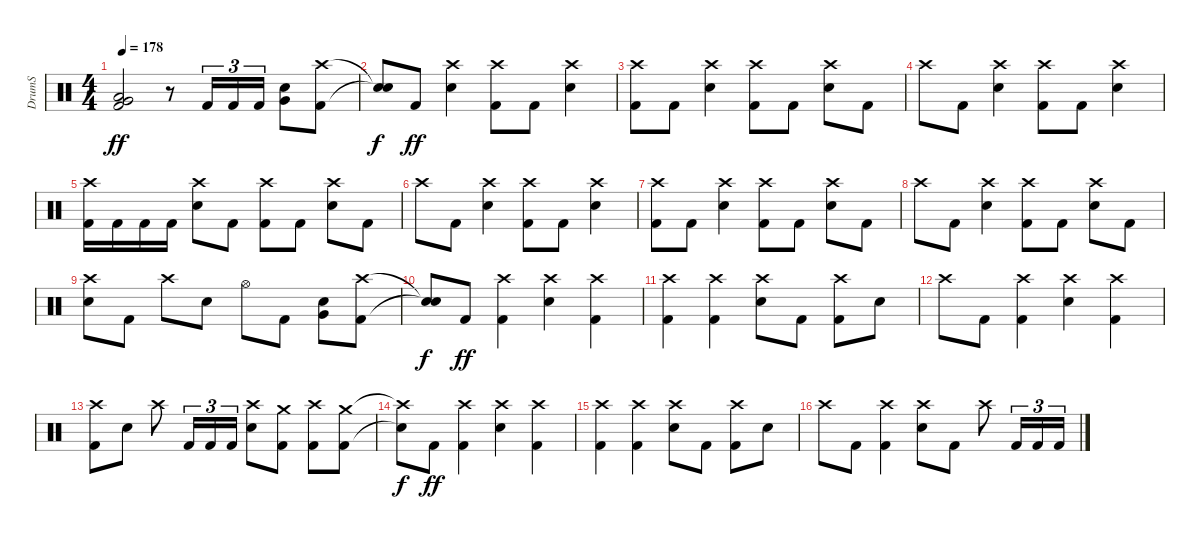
\track ("DrumS" "DrumS") {instrument percussion}
\staff {score}
\articulation defaults
\ts (4 4)
\tempo 178
\clef neutral
\ks c
("Low Floor Tom (hit)" "Very Low Tom (hit)" "Kick (hit) 2").2{dy ff} r.8 "Kick (hit) 2".16{tu (3 2)} "Kick (hit) 2".16{tu (3 2)} "Kick (hit) 2".16{tu (3 2)} ("Very Low Tom (hit)" "Electric Snare (hit)").8 ("Crash high (hit)" "Kick (hit) 2").8 |
("Snare (hit)"{t} "Snare (hit)"{t}).8{dy f} "Kick (hit) 2".8{dy ff} ("Crash high (hit)" "Electric Snare (hit)").4 ("Crash high (hit)" "Kick (hit) 2").8 "Kick (hit) 2".8 ("Crash high (hit)" "Electric Snare (hit)").4 |
("Crash high (hit)" "Kick (hit) 2").8 "Kick (hit) 2".8 ("Crash high (hit)" "Electric Snare (hit)").4 ("Crash high (hit)" "Kick (hit) 2").8 "Kick (hit) 2".8 ("Crash high (hit)" "Electric Snare (hit)").8 "Kick (hit) 2".8 |
"Crash high (hit)".8 "Kick (hit) 2".8 ("Crash high (hit)" "Electric Snare (hit)").4 ("Crash high (hit)" "Kick (hit) 2").8 "Kick (hit) 2".8 ("Crash high (hit)" "Electric Snare (hit)").4 |
("Crash high (hit)" "Kick (hit) 2").16 "Kick (hit) 2".16 "Kick (hit) 2".16 "Kick (hit) 2".16 ("Crash high (hit)" "Electric Snare (hit)").8 "Kick (hit) 2".8 ("Crash high (hit)" "Kick (hit) 2").8 "Kick (hit) 2".8 ("Crash high (hit)" "Electric Snare (hit)").8 "Kick (hit) 2".8 |
"Crash high (hit)".8 "Kick (hit) 2".8 ("Crash high (hit)" "Electric Snare (hit)").4 ("Crash high (hit)" "Kick (hit) 2").8 "Kick (hit) 2".8 ("Crash high (hit)" "Electric Snare (hit)").4 |
("Crash high (hit)" "Kick (hit) 2").8 "Kick (hit) 2".8 ("Crash high (hit)" "Electric Snare (hit)").4 ("Crash high (hit)" "Kick (hit) 2").8 "Kick (hit) 2".8 ("Crash high (hit)" "Electric Snare (hit)").8 "Kick (hit) 2".8 |
"Crash high (hit)".8 "Kick (hit) 2".8 ("Crash high (hit)" "Electric Snare (hit)").4 ("Crash high (hit)" "Kick (hit) 2").8 "Kick (hit) 2".8 ("Crash high (hit)" "Electric Snare (hit)").8 "Kick (hit) 2".8 |
("Crash high (hit)" "Electric Snare (hit)").8 "Kick (hit) 2".8 "Crash high (hit)".8 "Electric Snare (hit)".8 "Hi-Hat (open)".8 "Kick (hit) 2".8 ("Very Low Tom (hit)" "Electric Snare (hit)").8 ("Crash high (hit)" "Kick (hit) 2").8 |
("Snare (hit)"{t} "Snare (hit)"{t}).8{dy f} "Kick (hit) 2".8{dy ff} ("Crash high (hit)" "Kick (hit) 2").4 ("Crash high (hit)" "Electric Snare (hit)").4 ("Crash high (hit)" "Kick (hit) 2").4 |
("Crash high (hit)" "Kick (hit) 2").4 ("Crash high (hit)" "Kick (hit) 2").4 ("Crash high (hit)" "Electric Snare (hit)").8 "Kick (hit) 2".8 ("Crash high (hit)" "Kick (hit) 2").8 "Electric Snare (hit)".8 |
"Crash high (hit)".8 "Kick (hit) 2".8 ("Crash high (hit)" "Kick (hit) 2").4 ("Crash high (hit)" "Electric Snare (hit)").4 ("Crash high (hit)" "Kick (hit) 2").4 |
("Crash high (hit)" "Kick (hit) 2").8 "Electric Snare (hit)".8 "Crash high (hit)".8 "Kick (hit) 2".16{tu (3 2)} "Kick (hit) 2".16{tu (3 2)} "Kick (hit) 2".16{tu (3 2)} ("Crash high (hit)" "Electric Snare (hit)").8 ("Crash medium (hit)" "Kick (hit) 2").8 ("Crash high (hit)" "Kick (hit) 2").8 ("Crash medium (hit)" "Kick (hit) 2").8 |
("Crash high (hit)"{t} "Snare (hit)"{t}).8{dy f} "Kick (hit) 2".8{dy ff} ("Crash high (hit)" "Kick (hit) 2").4 ("Crash high (hit)" "Electric Snare (hit)").4 ("Crash high (hit)" "Kick (hit) 2").4 |
("Crash high (hit)" "Kick (hit) 2").4 ("Crash high (hit)" "Kick (hit) 2").4 ("Crash high (hit)" "Electric Snare (hit)").8 "Kick (hit) 2".8 ("Crash high (hit)" "Kick (hit) 2").8 "Electric Snare (hit)".8 |
"Crash high (hit)".8 "Kick (hit) 2".8 ("Crash high (hit)" "Kick (hit) 2").4 ("Crash high (hit)" "Electric Snare (hit)").8 "Kick (hit) 2".8 "Crash high (hit)".8 "Kick (hit) 2".16{tu (3 2)} "Kick (hit) 2".16{tu (3 2)} "Kick (hit) 2".16{tu (3 2)}
